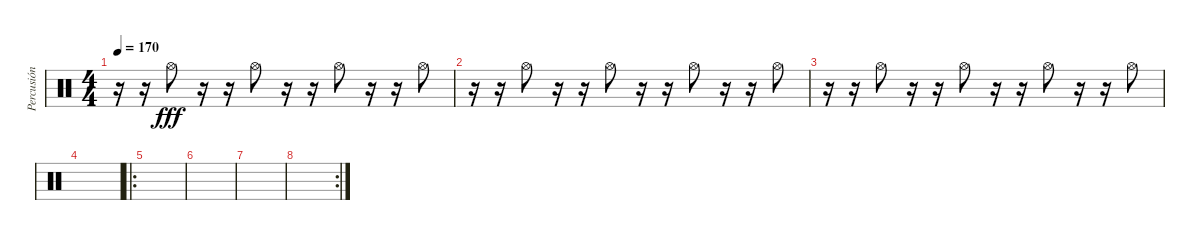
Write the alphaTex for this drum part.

\track ("Percusión" "Percusión") {instrument percussion}
\staff {score}
\articulation defaults
\ts (4 4)
\tempo 170
\clef neutral
\ks c
r.16{dy fff} r.16 "Hi-Hat (open)".8 r.16 r.16 "Hi-Hat (open)".8 r.16 r.16 "Hi-Hat (open)".8 r.16 r.16 "Hi-Hat (open)".8 |
r.16 r.16 "Hi-Hat (open)".8 r.16 r.16 "Hi-Hat (open)".8 r.16 r.16 "Hi-Hat (open)".8 r.16 r.16 "Hi-Hat (open)".8 |
r.16 r.16 "Hi-Hat (open)".8 r.16 r.16 "Hi-Hat (open)".8 r.16 r.16 "Hi-Hat (open)".8 r.16 r.16 "Hi-Hat (open)".8 |
|
\ro
|
|
|
\rc 2
